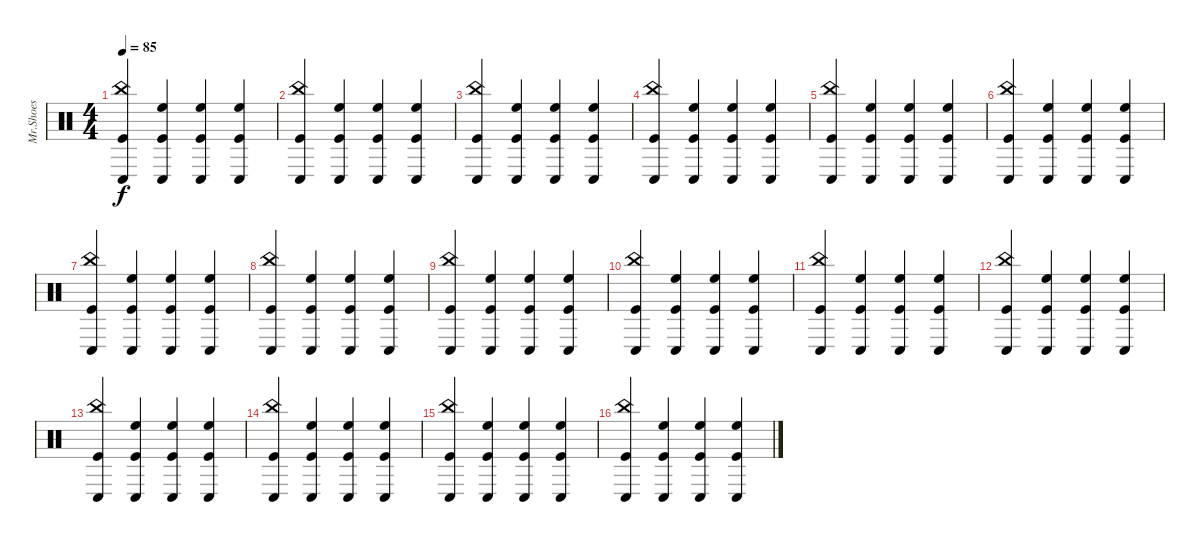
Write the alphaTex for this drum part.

\track ("Mr.Shoes" "Mr.Shoes") {instrument percussion}
\staff {score}
\articulation defaults
\ts (4 4)
\tempo 85
\clef neutral
\ks c
("China (hit)" "Kick (hit)" "Conga low (hit)").4{dy f} ("High Floor Tom (hit)" "Kick (hit)" "Conga low (hit)").4 ("High Floor Tom (hit)" "Kick (hit)" "Conga low (hit)").4 ("High Floor Tom (hit)" "Kick (hit)" "Conga low (hit)").4 |
("China (hit)" "Kick (hit)" "Conga low (hit)").4 ("High Floor Tom (hit)" "Kick (hit)" "Conga low (hit)").4 ("High Floor Tom (hit)" "Kick (hit)" "Conga low (hit)").4 ("High Floor Tom (hit)" "Kick (hit)" "Conga low (hit)").4 |
("China (hit)" "Kick (hit)" "Conga low (hit)").4 ("High Floor Tom (hit)" "Kick (hit)" "Conga low (hit)").4 ("High Floor Tom (hit)" "Kick (hit)" "Conga low (hit)").4 ("High Floor Tom (hit)" "Kick (hit)" "Conga low (hit)").4 |
("China (hit)" "Kick (hit)" "Conga low (hit)").4 ("High Floor Tom (hit)" "Kick (hit)" "Conga low (hit)").4 ("High Floor Tom (hit)" "Kick (hit)" "Conga low (hit)").4 ("High Floor Tom (hit)" "Kick (hit)" "Conga low (hit)").4 |
("China (hit)" "Kick (hit)" "Conga low (hit)").4 ("High Floor Tom (hit)" "Kick (hit)" "Conga low (hit)").4 ("High Floor Tom (hit)" "Kick (hit)" "Conga low (hit)").4 ("High Floor Tom (hit)" "Kick (hit)" "Conga low (hit)").4 |
("China (hit)" "Kick (hit)" "Conga low (hit)").4 ("High Floor Tom (hit)" "Kick (hit)" "Conga low (hit)").4 ("High Floor Tom (hit)" "Kick (hit)" "Conga low (hit)").4 ("High Floor Tom (hit)" "Kick (hit)" "Conga low (hit)").4 |
("China (hit)" "Kick (hit)" "Conga low (hit)").4 ("High Floor Tom (hit)" "Kick (hit)" "Conga low (hit)").4 ("High Floor Tom (hit)" "Kick (hit)" "Conga low (hit)").4 ("High Floor Tom (hit)" "Kick (hit)" "Conga low (hit)").4 |
("China (hit)" "Kick (hit)" "Conga low (hit)").4 ("High Floor Tom (hit)" "Kick (hit)" "Conga low (hit)").4 ("High Floor Tom (hit)" "Kick (hit)" "Conga low (hit)").4 ("High Floor Tom (hit)" "Kick (hit)" "Conga low (hit)").4 |
("China (hit)" "Kick (hit)" "Conga low (hit)").4 ("High Floor Tom (hit)" "Kick (hit)" "Conga low (hit)").4 ("High Floor Tom (hit)" "Kick (hit)" "Conga low (hit)").4 ("High Floor Tom (hit)" "Kick (hit)" "Conga low (hit)").4 |
("China (hit)" "Kick (hit)" "Conga low (hit)").4 ("High Floor Tom (hit)" "Kick (hit)" "Conga low (hit)").4 ("High Floor Tom (hit)" "Kick (hit)" "Conga low (hit)").4 ("High Floor Tom (hit)" "Kick (hit)" "Conga low (hit)").4 |
("China (hit)" "Kick (hit)" "Conga low (hit)").4 ("High Floor Tom (hit)" "Kick (hit)" "Conga low (hit)").4 ("High Floor Tom (hit)" "Kick (hit)" "Conga low (hit)").4 ("High Floor Tom (hit)" "Kick (hit)" "Conga low (hit)").4 |
("China (hit)" "Kick (hit)" "Conga low (hit)").4 ("High Floor Tom (hit)" "Kick (hit)" "Conga low (hit)").4 ("High Floor Tom (hit)" "Kick (hit)" "Conga low (hit)").4 ("High Floor Tom (hit)" "Kick (hit)" "Conga low (hit)").4 |
("China (hit)" "Kick (hit)" "Conga low (hit)").4 ("High Floor Tom (hit)" "Kick (hit)" "Conga low (hit)").4 ("High Floor Tom (hit)" "Kick (hit)" "Conga low (hit)").4 ("High Floor Tom (hit)" "Kick (hit)" "Conga low (hit)").4 |
("China (hit)" "Kick (hit)" "Conga low (hit)").4 ("High Floor Tom (hit)" "Kick (hit)" "Conga low (hit)").4 ("High Floor Tom (hit)" "Kick (hit)" "Conga low (hit)").4 ("High Floor Tom (hit)" "Kick (hit)" "Conga low (hit)").4 |
("China (hit)" "Kick (hit)" "Conga low (hit)").4 ("High Floor Tom (hit)" "Kick (hit)" "Conga low (hit)").4 ("High Floor Tom (hit)" "Kick (hit)" "Conga low (hit)").4 ("High Floor Tom (hit)" "Kick (hit)" "Conga low (hit)").4 |
("China (hit)" "Kick (hit)" "Conga low (hit)").4 ("High Floor Tom (hit)" "Kick (hit)" "Conga low (hit)").4 ("High Floor Tom (hit)" "Kick (hit)" "Conga low (hit)").4 ("High Floor Tom (hit)" "Kick (hit)" "Conga low (hit)").4
